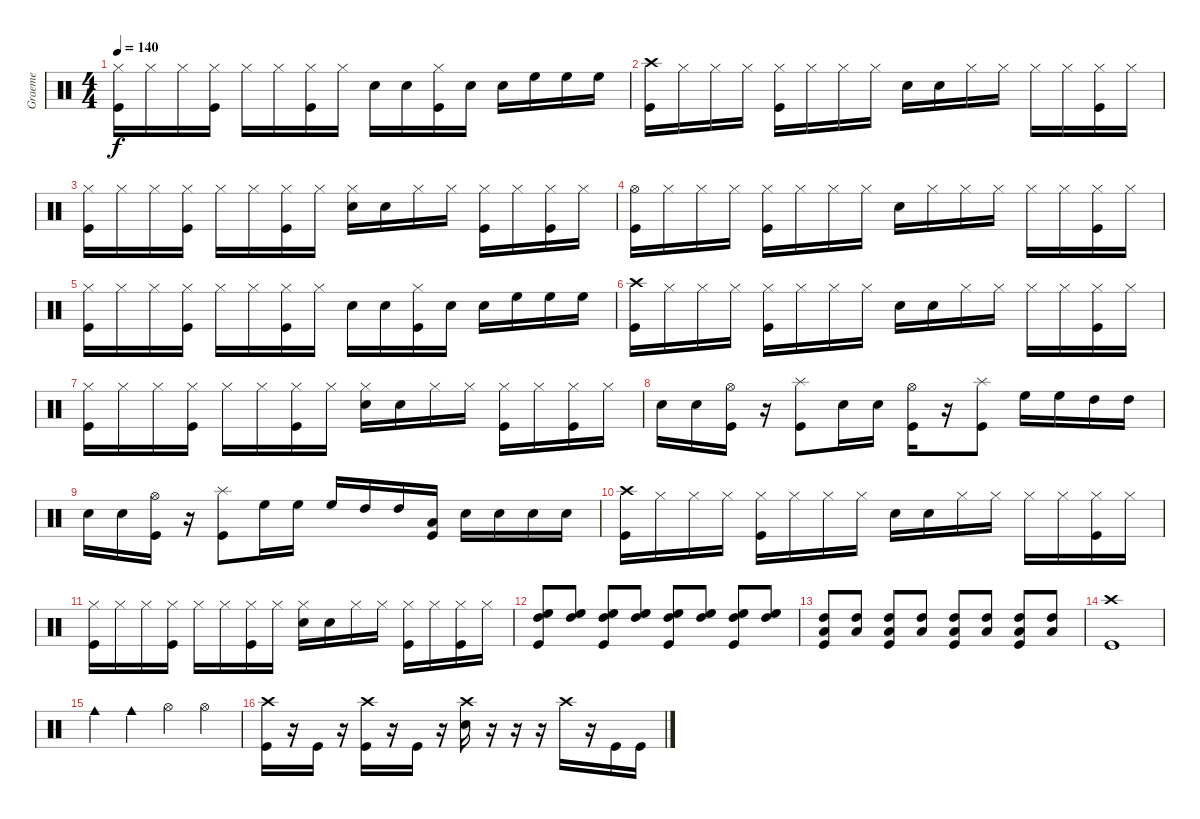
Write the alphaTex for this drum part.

\track ("Graeme" "Graeme") {instrument percussion}
\staff {score}
\articulation defaults
\ts (4 4)
\tempo 140
\clef neutral
\ks c
("Hi-Hat (closed)" "Kick (hit)").16{dy f} "Hi-Hat (closed)".16 "Hi-Hat (closed)".16 ("Hi-Hat (closed)" "Kick (hit)").16 "Hi-Hat (closed)".16 "Hi-Hat (closed)".16 ("Hi-Hat (closed)" "Kick (hit)").16 "Hi-Hat (closed)".16 "Snare (hit) 2".16 "Snare (hit) 2".16 ("Hi-Hat (closed)" "Kick (hit)").16 "Snare (hit) 2".16 "Snare (hit) 2".16 "High Floor Tom (hit)".16 "High Floor Tom (hit)".16 "High Floor Tom (hit)".16 |
("Crash high (hit)" "Kick (hit)").16 "Hi-Hat (closed)".16 "Hi-Hat (closed)".16 "Hi-Hat (closed)".16 ("Hi-Hat (closed)" "Kick (hit)").16 "Hi-Hat (closed)".16 "Hi-Hat (closed)".16 "Hi-Hat (closed)".16 "Snare (hit) 2".16 "Snare (hit) 2".16 "Hi-Hat (closed)".16 "Hi-Hat (closed)".16 "Hi-Hat (closed)".16 "Hi-Hat (closed)".16 ("Hi-Hat (closed)" "Kick (hit)").16 "Hi-Hat (closed)".16 |
("Hi-Hat (closed)" "Kick (hit)").16 "Hi-Hat (closed)".16 "Hi-Hat (closed)".16 ("Hi-Hat (closed)" "Kick (hit)").16 "Hi-Hat (closed)".16 "Hi-Hat (closed)".16 ("Hi-Hat (closed)" "Kick (hit)").16 "Hi-Hat (closed)".16 ("Hi-Hat (closed)" "Snare (hit) 2").16 "Snare (hit) 2".16 "Hi-Hat (closed)".16 "Hi-Hat (closed)".16 ("Hi-Hat (closed)" "Kick (hit)").16 "Hi-Hat (closed)".16 ("Hi-Hat (closed)" "Kick (hit)").16 "Hi-Hat (closed)".16 |
("Hi-Hat (open)" "Kick (hit)").16 "Hi-Hat (closed)".16 "Hi-Hat (closed)".16 "Hi-Hat (closed)".16 ("Hi-Hat (closed)" "Kick (hit)").16 "Hi-Hat (closed)".16 "Hi-Hat (closed)".16 "Hi-Hat (closed)".16 "Snare (hit) 2".16 "Hi-Hat (closed)".16 "Hi-Hat (closed)".16 "Hi-Hat (closed)".16 "Hi-Hat (closed)".16 "Hi-Hat (closed)".16 ("Hi-Hat (closed)" "Kick (hit)").16 "Hi-Hat (closed)".16 |
("Hi-Hat (closed)" "Kick (hit)").16 "Hi-Hat (closed)".16 "Hi-Hat (closed)".16 ("Hi-Hat (closed)" "Kick (hit)").16 "Hi-Hat (closed)".16 "Hi-Hat (closed)".16 ("Hi-Hat (closed)" "Kick (hit)").16 "Hi-Hat (closed)".16 "Snare (hit) 2".16 "Snare (hit) 2".16 ("Hi-Hat (closed)" "Kick (hit)").16 "Snare (hit) 2".16 "Snare (hit) 2".16 "High Floor Tom (hit)".16 "High Floor Tom (hit)".16 "High Floor Tom (hit)".16 |
("Crash high (hit)" "Kick (hit)").16 "Hi-Hat (closed)".16 "Hi-Hat (closed)".16 "Hi-Hat (closed)".16 ("Hi-Hat (closed)" "Kick (hit)").16 "Hi-Hat (closed)".16 "Hi-Hat (closed)".16 "Hi-Hat (closed)".16 "Snare (hit) 2".16 "Snare (hit) 2".16 "Hi-Hat (closed)".16 "Hi-Hat (closed)".16 "Hi-Hat (closed)".16 "Hi-Hat (closed)".16 ("Hi-Hat (closed)" "Kick (hit)").16 "Hi-Hat (closed)".16 |
("Hi-Hat (closed)" "Kick (hit)").16 "Hi-Hat (closed)".16 "Hi-Hat (closed)".16 ("Hi-Hat (closed)" "Kick (hit)").16 "Hi-Hat (closed)".16 "Hi-Hat (closed)".16 ("Hi-Hat (closed)" "Kick (hit)").16 "Hi-Hat (closed)".16 ("Hi-Hat (closed)" "Snare (hit) 2").16 "Snare (hit) 2".16 "Hi-Hat (closed)".16 "Hi-Hat (closed)".16 ("Hi-Hat (closed)" "Kick (hit)").16 "Hi-Hat (closed)".16 ("Hi-Hat (closed)" "Kick (hit)").16 "Hi-Hat (closed)".16 |
"Snare (hit) 2".16 "Snare (hit) 2".16 ("Hi-Hat (open)" "Kick (hit)").16 r.16 ("Splash (hit)" "Kick (hit)").8 "Snare (hit) 2".16 "Snare (hit) 2".16 ("Hi-Hat (open)" "Kick (hit)").16 r.16 ("Splash (hit)" "Kick (hit)").8 "High Floor Tom (hit)".16 "High Floor Tom (hit)".16 "High Tom (hit)".16 "High Tom (hit)".16 |
"Snare (hit) 2".16 "Snare (hit) 2".16 ("Hi-Hat (open)" "Kick (hit)").16 r.16 ("Splash (hit)" "Kick (hit)").8 "High Floor Tom (hit)".16 "High Floor Tom (hit)".16 "High Floor Tom (hit)".16 "High Tom (hit)".16 "High Tom (hit)".16 ("Low Floor Tom (hit)" "Kick (hit)").16 "Snare (hit) 2".16 "Snare (hit) 2".16 "Snare (hit) 2".16 "Snare (hit) 2".16 |
("Crash high (hit)" "Kick (hit)").16 "Hi-Hat (closed)".16 "Hi-Hat (closed)".16 "Hi-Hat (closed)".16 ("Hi-Hat (closed)" "Kick (hit)").16 "Hi-Hat (closed)".16 "Hi-Hat (closed)".16 "Hi-Hat (closed)".16 "Snare (hit) 2".16 "Snare (hit) 2".16 "Hi-Hat (closed)".16 "Hi-Hat (closed)".16 "Hi-Hat (closed)".16 "Hi-Hat (closed)".16 ("Hi-Hat (closed)" "Kick (hit)").16 "Hi-Hat (closed)".16 |
("Hi-Hat (closed)" "Kick (hit)").16 "Hi-Hat (closed)".16 "Hi-Hat (closed)".16 ("Hi-Hat (closed)" "Kick (hit)").16 "Hi-Hat (closed)".16 "Hi-Hat (closed)".16 ("Hi-Hat (closed)" "Kick (hit)").16 "Hi-Hat (closed)".16 ("Hi-Hat (closed)" "Snare (hit) 2").16 "Snare (hit) 2".16 "Hi-Hat (closed)".16 "Hi-Hat (closed)".16 ("Hi-Hat (closed)" "Kick (hit)").16 "Hi-Hat (closed)".16 ("Hi-Hat (closed)" "Kick (hit)").16 "Hi-Hat (closed)".16 |
("High Floor Tom (hit)" "High Tom (hit)" "Kick (hit)").8 ("High Floor Tom (hit)" "High Tom (hit)").8 ("High Floor Tom (hit)" "High Tom (hit)" "Kick (hit)").8 ("High Floor Tom (hit)" "High Tom (hit)").8 ("High Floor Tom (hit)" "High Tom (hit)" "Kick (hit)").8 ("High Floor Tom (hit)" "High Tom (hit)").8 ("High Floor Tom (hit)" "High Tom (hit)" "Kick (hit)").8 ("High Floor Tom (hit)" "High Tom (hit)").8 |
("High Tom (hit)" "Low Floor Tom (hit)" "Kick (hit)").8 ("High Tom (hit)" "Low Floor Tom (hit)").8 ("High Tom (hit)" "Low Floor Tom (hit)" "Kick (hit)").8 ("High Tom (hit)" "Low Floor Tom (hit)").8 ("High Tom (hit)" "Low Floor Tom (hit)" "Kick (hit)").8 ("High Tom (hit)" "Low Floor Tom (hit)").8 ("High Tom (hit)" "Low Floor Tom (hit)" "Kick (hit)").8 ("High Tom (hit)" "Low Floor Tom (hit)").8 |
("Crash high (hit)" "Kick (hit)").1 |
"Cowbell medium (hit)".4 "Cowbell medium (hit)".4 "Hi-Hat (open)".4 "Hi-Hat (open)".4 |
("Crash high (hit)" "Kick (hit)").16 r.16 "Kick (hit)".16 r.16 ("Crash high (hit)" "Kick (hit)").16 r.16 "Kick (hit)".16 r.16 ("Crash high (hit)" "Snare (hit) 2").16 r.16 r.16 r.16 "Crash high (hit)".16 r.16 "Kick (hit)".16 "Kick (hit)".16
